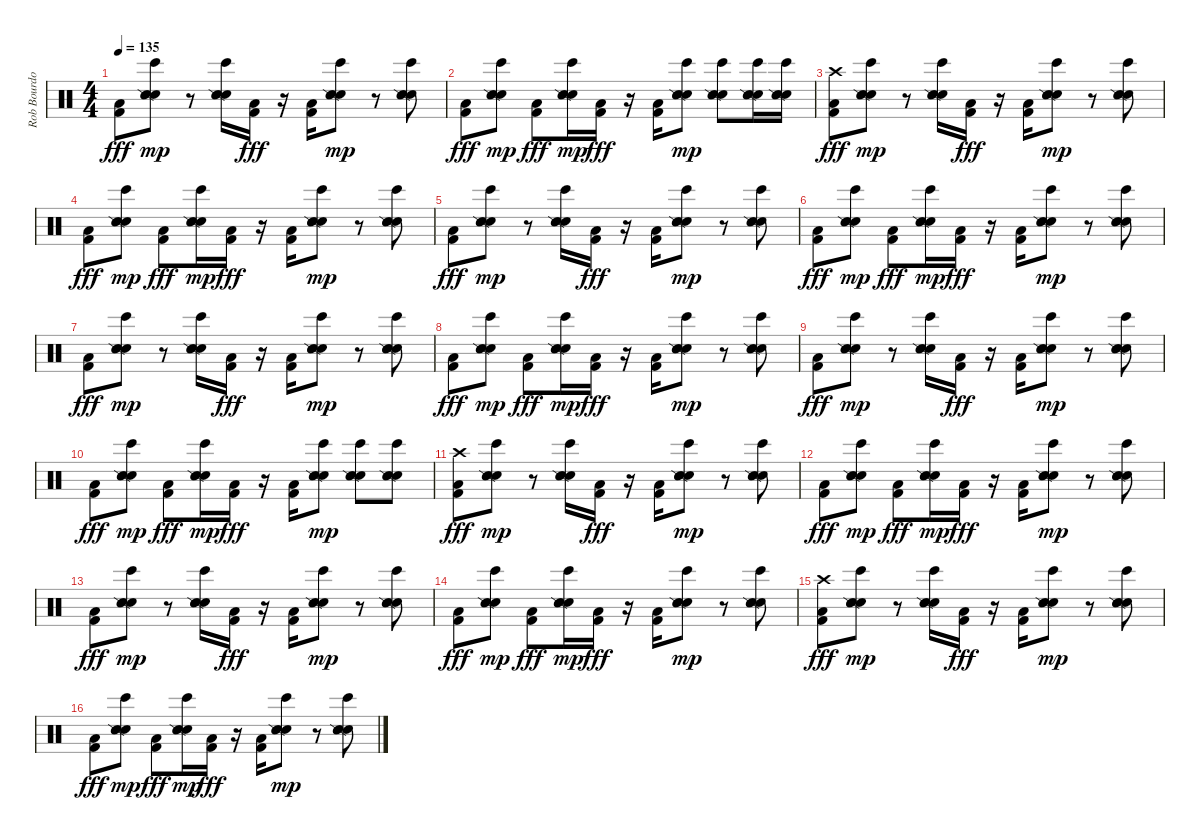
\track ("Rob Bourdon - Beats & Drums" "Rob Bourdo") {instrument percussion}
\staff {score}
\articulation defaults
\ts (4 4)
\tempo 135
\clef neutral
\ks c
("Low Floor Tom (hit)" "Kick (hit) 2").8{dy fff} ("Bongo High (hit)" "Electric Snare (hit)" "Snare (side stick) 2" "Hand Clap (hit)").8{dy mp} r.8 ("Bongo High (hit)" "Electric Snare (hit)" "Snare (side stick) 2" "Hand Clap (hit)").16 ("Low Floor Tom (hit)" "Kick (hit) 2").16{dy fff} r.16 ("Low Floor Tom (hit)" "Kick (hit) 2").16 ("Bongo High (hit)" "Electric Snare (hit)" "Snare (side stick) 2" "Hand Clap (hit)").8{dy mp} r.8 ("Bongo High (hit)" "Electric Snare (hit)" "Snare (side stick) 2" "Hand Clap (hit)").8 |
("Low Floor Tom (hit)" "Kick (hit) 2").8{dy fff} ("Bongo High (hit)" "Electric Snare (hit)" "Snare (side stick) 2" "Hand Clap (hit)").8{dy mp} ("Low Floor Tom (hit)" "Kick (hit) 2").8{dy fff} ("Bongo High (hit)" "Electric Snare (hit)" "Snare (side stick) 2" "Hand Clap (hit)").16{dy mp} ("Low Floor Tom (hit)" "Kick (hit) 2").16{dy fff} r.16 ("Low Floor Tom (hit)" "Kick (hit) 2").16 ("Bongo High (hit)" "Electric Snare (hit)" "Snare (side stick) 2" "Hand Clap (hit)").8{dy mp} ("Bongo High (hit)" "Electric Snare (hit)" "Snare (side stick) 2" "Hand Clap (hit)").8 ("Bongo High (hit)" "Electric Snare (hit)" "Snare (side stick) 2" "Hand Clap (hit)").16 ("Bongo High (hit)" "Electric Snare (hit)" "Snare (side stick) 2" "Hand Clap (hit)").16 |
("Low Floor Tom (hit)" "Crash high (hit)" "Kick (hit) 2").8{dy fff} ("Bongo High (hit)" "Electric Snare (hit)" "Snare (side stick) 2" "Hand Clap (hit)").8{dy mp} r.8 ("Bongo High (hit)" "Electric Snare (hit)" "Snare (side stick) 2" "Hand Clap (hit)").16 ("Low Floor Tom (hit)" "Kick (hit) 2").16{dy fff} r.16 ("Low Floor Tom (hit)" "Kick (hit) 2").16 ("Bongo High (hit)" "Electric Snare (hit)" "Snare (side stick) 2" "Hand Clap (hit)").8{dy mp} r.8 ("Bongo High (hit)" "Electric Snare (hit)" "Snare (side stick) 2" "Hand Clap (hit)").8 |
("Low Floor Tom (hit)" "Kick (hit) 2").8{dy fff} ("Bongo High (hit)" "Electric Snare (hit)" "Snare (side stick) 2" "Hand Clap (hit)").8{dy mp} ("Low Floor Tom (hit)" "Kick (hit) 2").8{dy fff} ("Bongo High (hit)" "Electric Snare (hit)" "Snare (side stick) 2" "Hand Clap (hit)").16{dy mp} ("Low Floor Tom (hit)" "Kick (hit) 2").16{dy fff} r.16 ("Low Floor Tom (hit)" "Kick (hit) 2").16 ("Bongo High (hit)" "Electric Snare (hit)" "Snare (side stick) 2" "Hand Clap (hit)").8{dy mp} r.8 ("Bongo High (hit)" "Electric Snare (hit)" "Snare (side stick) 2" "Hand Clap (hit)").8 |
("Low Floor Tom (hit)" "Kick (hit) 2").8{dy fff} ("Bongo High (hit)" "Electric Snare (hit)" "Snare (side stick) 2" "Hand Clap (hit)").8{dy mp} r.8 ("Bongo High (hit)" "Electric Snare (hit)" "Snare (side stick) 2" "Hand Clap (hit)").16 ("Low Floor Tom (hit)" "Kick (hit) 2").16{dy fff} r.16 ("Low Floor Tom (hit)" "Kick (hit) 2").16 ("Bongo High (hit)" "Electric Snare (hit)" "Snare (side stick) 2" "Hand Clap (hit)").8{dy mp} r.8 ("Bongo High (hit)" "Electric Snare (hit)" "Snare (side stick) 2" "Hand Clap (hit)").8 |
("Low Floor Tom (hit)" "Kick (hit) 2").8{dy fff} ("Bongo High (hit)" "Electric Snare (hit)" "Snare (side stick) 2" "Hand Clap (hit)").8{dy mp} ("Low Floor Tom (hit)" "Kick (hit) 2").8{dy fff} ("Bongo High (hit)" "Electric Snare (hit)" "Snare (side stick) 2" "Hand Clap (hit)").16{dy mp} ("Low Floor Tom (hit)" "Kick (hit) 2").16{dy fff} r.16 ("Low Floor Tom (hit)" "Kick (hit) 2").16 ("Bongo High (hit)" "Electric Snare (hit)" "Snare (side stick) 2" "Hand Clap (hit)").8{dy mp} r.8 ("Bongo High (hit)" "Electric Snare (hit)" "Snare (side stick) 2" "Hand Clap (hit)").8 |
("Low Floor Tom (hit)" "Kick (hit) 2").8{dy fff} ("Bongo High (hit)" "Electric Snare (hit)" "Snare (side stick) 2" "Hand Clap (hit)").8{dy mp} r.8 ("Bongo High (hit)" "Electric Snare (hit)" "Snare (side stick) 2" "Hand Clap (hit)").16 ("Low Floor Tom (hit)" "Kick (hit) 2").16{dy fff} r.16 ("Low Floor Tom (hit)" "Kick (hit) 2").16 ("Bongo High (hit)" "Electric Snare (hit)" "Snare (side stick) 2" "Hand Clap (hit)").8{dy mp} r.8 ("Bongo High (hit)" "Electric Snare (hit)" "Snare (side stick) 2" "Hand Clap (hit)").8 |
("Low Floor Tom (hit)" "Kick (hit) 2").8{dy fff} ("Bongo High (hit)" "Electric Snare (hit)" "Snare (side stick) 2" "Hand Clap (hit)").8{dy mp} ("Low Floor Tom (hit)" "Kick (hit) 2").8{dy fff} ("Bongo High (hit)" "Electric Snare (hit)" "Snare (side stick) 2" "Hand Clap (hit)").16{dy mp} ("Low Floor Tom (hit)" "Kick (hit) 2").16{dy fff} r.16 ("Low Floor Tom (hit)" "Kick (hit) 2").16 ("Bongo High (hit)" "Electric Snare (hit)" "Snare (side stick) 2" "Hand Clap (hit)").8{dy mp} r.8 ("Bongo High (hit)" "Electric Snare (hit)" "Snare (side stick) 2" "Hand Clap (hit)").8 |
("Low Floor Tom (hit)" "Kick (hit) 2").8{dy fff} ("Bongo High (hit)" "Electric Snare (hit)" "Snare (side stick) 2" "Hand Clap (hit)").8{dy mp} r.8 ("Bongo High (hit)" "Electric Snare (hit)" "Snare (side stick) 2" "Hand Clap (hit)").16 ("Low Floor Tom (hit)" "Kick (hit) 2").16{dy fff} r.16 ("Low Floor Tom (hit)" "Kick (hit) 2").16 ("Bongo High (hit)" "Electric Snare (hit)" "Snare (side stick) 2" "Hand Clap (hit)").8{dy mp} r.8 ("Bongo High (hit)" "Electric Snare (hit)" "Snare (side stick) 2" "Hand Clap (hit)").8 |
("Low Floor Tom (hit)" "Kick (hit) 2").8{dy fff} ("Bongo High (hit)" "Electric Snare (hit)" "Snare (side stick) 2" "Hand Clap (hit)").8{dy mp} ("Low Floor Tom (hit)" "Kick (hit) 2").8{dy fff} ("Bongo High (hit)" "Electric Snare (hit)" "Snare (side stick) 2" "Hand Clap (hit)").16{dy mp} ("Low Floor Tom (hit)" "Kick (hit) 2").16{dy fff} r.16 ("Low Floor Tom (hit)" "Kick (hit) 2").16 ("Bongo High (hit)" "Electric Snare (hit)" "Snare (side stick) 2" "Hand Clap (hit)").8{dy mp} ("Bongo High (hit)" "Electric Snare (hit)" "Snare (side stick) 2" "Hand Clap (hit)").8 ("Bongo High (hit)" "Electric Snare (hit)" "Snare (side stick) 2" "Hand Clap (hit)").8 |
("Low Floor Tom (hit)" "Crash high (hit)" "Kick (hit) 2").8{dy fff} ("Bongo High (hit)" "Electric Snare (hit)" "Snare (side stick) 2" "Hand Clap (hit)").8{dy mp} r.8 ("Bongo High (hit)" "Electric Snare (hit)" "Snare (side stick) 2" "Hand Clap (hit)").16 ("Low Floor Tom (hit)" "Kick (hit) 2").16{dy fff} r.16 ("Low Floor Tom (hit)" "Kick (hit) 2").16 ("Bongo High (hit)" "Electric Snare (hit)" "Snare (side stick) 2" "Hand Clap (hit)").8{dy mp} r.8 ("Bongo High (hit)" "Electric Snare (hit)" "Snare (side stick) 2" "Hand Clap (hit)").8 |
("Low Floor Tom (hit)" "Kick (hit) 2").8{dy fff} ("Bongo High (hit)" "Electric Snare (hit)" "Snare (side stick) 2" "Hand Clap (hit)").8{dy mp} ("Low Floor Tom (hit)" "Kick (hit) 2").8{dy fff} ("Bongo High (hit)" "Electric Snare (hit)" "Snare (side stick) 2" "Hand Clap (hit)").16{dy mp} ("Low Floor Tom (hit)" "Kick (hit) 2").16{dy fff} r.16 ("Low Floor Tom (hit)" "Kick (hit) 2").16 ("Bongo High (hit)" "Electric Snare (hit)" "Snare (side stick) 2" "Hand Clap (hit)").8{dy mp} r.8 ("Bongo High (hit)" "Electric Snare (hit)" "Snare (side stick) 2" "Hand Clap (hit)").8 |
("Low Floor Tom (hit)" "Kick (hit) 2").8{dy fff} ("Bongo High (hit)" "Electric Snare (hit)" "Snare (side stick) 2" "Hand Clap (hit)").8{dy mp} r.8 ("Bongo High (hit)" "Electric Snare (hit)" "Snare (side stick) 2" "Hand Clap (hit)").16 ("Low Floor Tom (hit)" "Kick (hit) 2").16{dy fff} r.16 ("Low Floor Tom (hit)" "Kick (hit) 2").16 ("Bongo High (hit)" "Electric Snare (hit)" "Snare (side stick) 2" "Hand Clap (hit)").8{dy mp} r.8 ("Bongo High (hit)" "Electric Snare (hit)" "Snare (side stick) 2" "Hand Clap (hit)").8 |
("Low Floor Tom (hit)" "Kick (hit) 2").8{dy fff} ("Bongo High (hit)" "Electric Snare (hit)" "Snare (side stick) 2" "Hand Clap (hit)").8{dy mp} ("Low Floor Tom (hit)" "Kick (hit) 2").8{dy fff} ("Bongo High (hit)" "Electric Snare (hit)" "Snare (side stick) 2" "Hand Clap (hit)").16{dy mp} ("Low Floor Tom (hit)" "Kick (hit) 2").16{dy fff} r.16 ("Low Floor Tom (hit)" "Kick (hit) 2").16 ("Bongo High (hit)" "Electric Snare (hit)" "Snare (side stick) 2" "Hand Clap (hit)").8{dy mp} r.8 ("Bongo High (hit)" "Electric Snare (hit)" "Snare (side stick) 2" "Hand Clap (hit)").8 |
("Low Floor Tom (hit)" "Crash high (hit)" "Kick (hit) 2").8{dy fff} ("Bongo High (hit)" "Electric Snare (hit)" "Snare (side stick) 2" "Hand Clap (hit)").8{dy mp} r.8 ("Bongo High (hit)" "Electric Snare (hit)" "Snare (side stick) 2" "Hand Clap (hit)").16 ("Low Floor Tom (hit)" "Kick (hit) 2").16{dy fff} r.16 ("Low Floor Tom (hit)" "Kick (hit) 2").16 ("Bongo High (hit)" "Electric Snare (hit)" "Snare (side stick) 2" "Hand Clap (hit)").8{dy mp} r.8 ("Bongo High (hit)" "Electric Snare (hit)" "Snare (side stick) 2" "Hand Clap (hit)").8 |
("Low Floor Tom (hit)" "Kick (hit) 2").8{dy fff} ("Bongo High (hit)" "Electric Snare (hit)" "Snare (side stick) 2" "Hand Clap (hit)").8{dy mp} ("Low Floor Tom (hit)" "Kick (hit) 2").8{dy fff} ("Bongo High (hit)" "Electric Snare (hit)" "Snare (side stick) 2" "Hand Clap (hit)").16{dy mp} ("Low Floor Tom (hit)" "Kick (hit) 2").16{dy fff} r.16 ("Low Floor Tom (hit)" "Kick (hit) 2").16 ("Bongo High (hit)" "Electric Snare (hit)" "Snare (side stick) 2" "Hand Clap (hit)").8{dy mp} r.8 ("Bongo High (hit)" "Electric Snare (hit)" "Snare (side stick) 2" "Hand Clap (hit)").8
